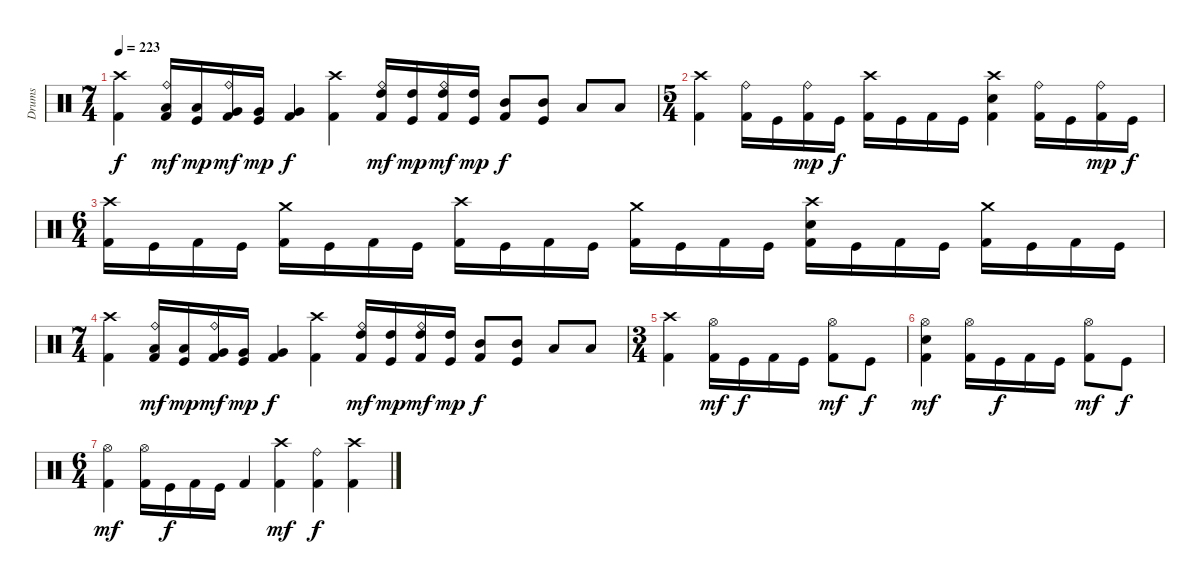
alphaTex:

\track ("Drums" "Drums") {instrument percussion}
\staff {score}
\articulation defaults
\ts (7 4)
\tempo 223
\clef neutral
\ks c
("Crash high (hit)" "Kick (hit) 2").4{dy f} ("Ride (bell)" "Low Tom (hit)" "Kick (hit) 2").16{dy mf} ("Low Tom (hit)" "Kick (hit)").16{dy mp} ("Ride (bell)" "Very Low Tom (hit)" "Kick (hit) 2").16{dy mf} ("Very Low Tom (hit)" "Kick (hit)").16{dy mp} ("Very Low Tom (hit)" "Kick (hit) 2").4{dy f} ("Crash high (hit)" "Kick (hit) 2").4 ("Ride (bell)" "High Tom (hit)" "Kick (hit) 2").16{dy mf} ("High Tom (hit)" "Kick (hit)").16{dy mp} ("Ride (bell)" "High Tom (hit)" "Kick (hit) 2").16{dy mf} ("High Tom (hit)" "Kick (hit)").16{dy mp} ("Mid Tom (hit)" "Kick (hit) 2").8{dy f} ("Mid Tom (hit)" "Kick (hit)").8 "Low Tom (hit)".8 "Low Tom (hit)".8 |
\ts (5 4)
("Crash high (hit)" "Kick (hit) 2").4 ("Ride (bell)" "Kick (hit) 2").16 "Kick (hit)".16 ("Ride (bell)" "Kick (hit) 2").16{dy mp} "Kick (hit)".16{dy f} ("Crash high (hit)" "Kick (hit) 2").16 "Kick (hit)".16 "Kick (hit) 2".16 "Kick (hit)".16 ("Crash high (hit)" "Snare (hit) 2" "Kick (hit) 2").4 ("Ride (bell)" "Kick (hit) 2").16 "Kick (hit)".16 ("Ride (bell)" "Kick (hit) 2").16{dy mp} "Kick (hit)".16{dy f} |
\ts (6 4)
("Crash high (hit)" "Kick (hit) 2").16 "Kick (hit)".16 "Kick (hit) 2".16 "Kick (hit)".16 ("Crash medium (hit)" "Kick (hit) 2").16 "Kick (hit)".16 "Kick (hit) 2".16 "Kick (hit)".16 ("Crash high (hit)" "Kick (hit) 2").16 "Kick (hit)".16 "Kick (hit) 2".16 "Kick (hit)".16 ("Crash medium (hit)" "Kick (hit) 2").16 "Kick (hit)".16 "Kick (hit) 2".16 "Kick (hit)".16 ("Crash high (hit)" "Snare (hit) 2" "Kick (hit) 2").16 "Kick (hit)".16 "Kick (hit) 2".16 "Kick (hit)".16 ("Crash medium (hit)" "Kick (hit) 2").16 "Kick (hit)".16 "Kick (hit) 2".16 "Kick (hit)".16 |
\ts (7 4)
("Crash high (hit)" "Kick (hit) 2").4 ("Ride (bell)" "Low Tom (hit)" "Kick (hit) 2").16{dy mf} ("Low Tom (hit)" "Kick (hit)").16{dy mp} ("Ride (bell)" "Very Low Tom (hit)" "Kick (hit) 2").16{dy mf} ("Very Low Tom (hit)" "Kick (hit)").16{dy mp} ("Very Low Tom (hit)" "Kick (hit) 2").4{dy f} ("Crash high (hit)" "Kick (hit) 2").4 ("Ride (bell)" "High Tom (hit)" "Kick (hit) 2").16{dy mf} ("High Tom (hit)" "Kick (hit)").16{dy mp} ("Ride (bell)" "High Tom (hit)" "Kick (hit) 2").16{dy mf} ("High Tom (hit)" "Kick (hit)").16{dy mp} ("Mid Tom (hit)" "Kick (hit) 2").8{dy f} ("Mid Tom (hit)" "Kick (hit)").8 "Low Tom (hit)".8 "Low Tom (hit)".8 |
\ts (3 4)
("Crash high (hit)" "Kick (hit) 2").4 ("Hi-Hat (open)" "Kick (hit) 2").16{dy mf} "Kick (hit)".16{dy f} "Kick (hit) 2".16 "Kick (hit)".16 ("Hi-Hat (open)" "Kick (hit) 2").8{dy mf} "Kick (hit)".8{dy f} |
("Hi-Hat (open)" "Snare (hit) 2" "Kick (hit) 2").4{dy mf} ("Hi-Hat (open)" "Kick (hit) 2").16 "Kick (hit)".16{dy f} "Kick (hit) 2".16 "Kick (hit)".16 ("Hi-Hat (open)" "Kick (hit) 2").8{dy mf} "Kick (hit)".8{dy f} |
\ts (6 4)
("Hi-Hat (open)" "Kick (hit) 2").4{dy mf} ("Hi-Hat (open)" "Kick (hit) 2").16 "Kick (hit)".16{dy f} "Kick (hit) 2".16 "Kick (hit)".16 "Kick (hit) 2".4 ("Crash high (hit)" "Kick (hit) 2").4{dy mf} ("Ride (bell)" "Kick (hit) 2").4{dy f} ("Crash high (hit)" "Kick (hit) 2").4
